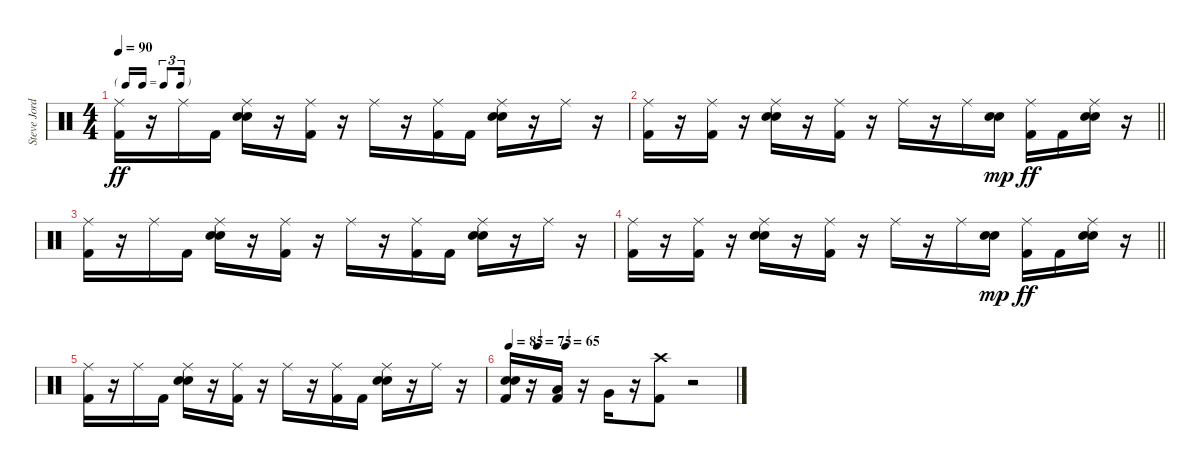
\track ("Steve Jordan" "Steve Jord") {instrument percussion}
\staff {score}
\articulation defaults
\ts (4 4)
\tf triplet16th
\tempo 90
\clef neutral
\ks c
("Ride (middle)" "Kick (hit) 2").16{dy ff} r.16 "Ride (middle)".16 "Kick (hit) 2".16 ("Ride (middle)" "Electric Snare (hit)" "Snare (hit) 2").16 r.16 ("Ride (middle)" "Kick (hit) 2").16 r.16 "Ride (middle)".16 r.16 ("Ride (middle)" "Kick (hit) 2").16 "Kick (hit) 2".16 ("Ride (middle)" "Electric Snare (hit)" "Snare (hit) 2").16 r.16 "Ride (middle)".16 r.16 |
\barLineRight lightlight
("Ride (middle)" "Kick (hit) 2").16 r.16 ("Ride (middle)" "Kick (hit) 2").16 r.16 ("Ride (middle)" "Electric Snare (hit)" "Snare (hit) 2").16 r.16 ("Ride (middle)" "Kick (hit) 2").16 r.16 "Ride (middle)".16 r.16 "Ride (middle)".16 ("Electric Snare (hit)" "Snare (hit) 2").16{dy mp} ("Ride (middle)" "Kick (hit) 2").16{dy ff} "Kick (hit) 2".16 ("Ride (middle)" "Electric Snare (hit)" "Snare (hit) 2").16 r.16 |
("Ride (middle)" "Kick (hit) 2").16 r.16 "Ride (middle)".16 "Kick (hit) 2".16 ("Ride (middle)" "Electric Snare (hit)" "Snare (hit) 2").16 r.16 ("Ride (middle)" "Kick (hit) 2").16 r.16 "Ride (middle)".16 r.16 ("Ride (middle)" "Kick (hit) 2").16 "Kick (hit) 2".16 ("Ride (middle)" "Electric Snare (hit)" "Snare (hit) 2").16 r.16 "Ride (middle)".16 r.16 |
\barLineRight lightlight
("Ride (middle)" "Kick (hit) 2").16 r.16 ("Ride (middle)" "Kick (hit) 2").16 r.16 ("Ride (middle)" "Electric Snare (hit)" "Snare (hit) 2").16 r.16 ("Ride (middle)" "Kick (hit) 2").16 r.16 "Ride (middle)".16 r.16 "Ride (middle)".16 ("Electric Snare (hit)" "Snare (hit) 2").16{dy mp} ("Ride (middle)" "Kick (hit) 2").16{dy ff} "Kick (hit) 2".16 ("Ride (middle)" "Electric Snare (hit)" "Snare (hit) 2").16 r.16 |
("Ride (middle)" "Kick (hit) 2").16 r.16 "Ride (middle)".16 "Kick (hit) 2".16 ("Ride (middle)" "Electric Snare (hit)" "Snare (hit) 2").16 r.16 ("Ride (middle)" "Kick (hit) 2").16 r.16 "Ride (middle)".16 r.16 ("Ride (middle)" "Kick (hit) 2").16 "Kick (hit) 2".16 ("Ride (middle)" "Electric Snare (hit)" "Snare (hit) 2").16 r.16 "Ride (middle)".16 r.16 |
\tempo 85
\tempo (75 0.125)
\tempo (65 0.25)
("Snare (hit) 2" "Electric Snare (hit)" "Kick (hit) 2").16 r.16 ("Low Tom (hit)" "Kick (hit) 2").16 r.16 "Very Low Tom (hit)".16 r.16 ("Crash high (hit)" "Kick (hit) 2").8 r.2
